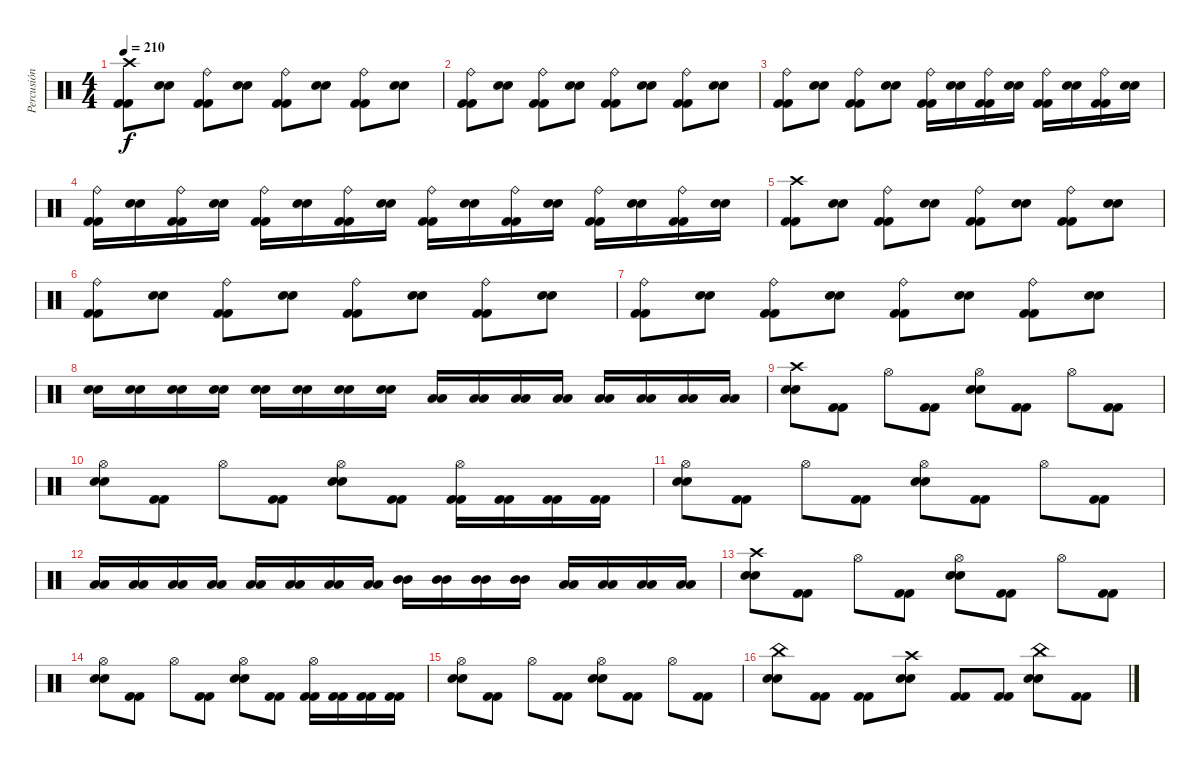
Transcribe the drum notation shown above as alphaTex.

\track ("Percusión" "Percusión") {instrument percussion}
\staff {score}
\articulation defaults
\ts (4 4)
\tempo 210
\clef neutral
\ks c
("Kick (hit) 2" "Kick (hit) 2" "Crash high (hit)").8{dy f} ("Electric Snare (hit)" "Electric Snare (hit)").8 ("Kick (hit) 2" "Kick (hit) 2" "Ride (bell)").8 ("Electric Snare (hit)" "Electric Snare (hit)").8 ("Kick (hit) 2" "Kick (hit) 2" "Ride (bell)").8 ("Electric Snare (hit)" "Electric Snare (hit)").8 ("Kick (hit) 2" "Kick (hit) 2" "Ride (bell)").8 ("Electric Snare (hit)" "Electric Snare (hit)").8 |
("Kick (hit) 2" "Kick (hit) 2" "Ride (bell)").8 ("Electric Snare (hit)" "Electric Snare (hit)").8 ("Kick (hit) 2" "Kick (hit) 2" "Ride (bell)").8 ("Electric Snare (hit)" "Electric Snare (hit)").8 ("Kick (hit) 2" "Kick (hit) 2" "Ride (bell)").8 ("Electric Snare (hit)" "Electric Snare (hit)").8 ("Kick (hit) 2" "Kick (hit) 2" "Ride (bell)").8 ("Electric Snare (hit)" "Electric Snare (hit)").8 |
("Kick (hit) 2" "Kick (hit) 2" "Ride (bell)").8 ("Electric Snare (hit)" "Electric Snare (hit)").8 ("Kick (hit) 2" "Kick (hit) 2" "Ride (bell)").8 ("Electric Snare (hit)" "Electric Snare (hit)").8 ("Kick (hit) 2" "Kick (hit) 2" "Ride (bell)").16 ("Electric Snare (hit)" "Electric Snare (hit)").16 ("Kick (hit) 2" "Kick (hit) 2" "Ride (bell)").16 ("Electric Snare (hit)" "Electric Snare (hit)").16 ("Kick (hit) 2" "Kick (hit) 2" "Ride (bell)").16 ("Electric Snare (hit)" "Electric Snare (hit)").16 ("Kick (hit) 2" "Kick (hit) 2" "Ride (bell)").16 ("Electric Snare (hit)" "Electric Snare (hit)").16 |
("Kick (hit) 2" "Kick (hit) 2" "Ride (bell)").16 ("Electric Snare (hit)" "Electric Snare (hit)").16 ("Kick (hit) 2" "Kick (hit) 2" "Ride (bell)").16 ("Electric Snare (hit)" "Electric Snare (hit)").16 ("Kick (hit) 2" "Kick (hit) 2" "Ride (bell)").16 ("Electric Snare (hit)" "Electric Snare (hit)").16 ("Kick (hit) 2" "Kick (hit) 2" "Ride (bell)").16 ("Electric Snare (hit)" "Electric Snare (hit)").16 ("Kick (hit) 2" "Kick (hit) 2" "Ride (bell)").16 ("Electric Snare (hit)" "Electric Snare (hit)").16 ("Kick (hit) 2" "Kick (hit) 2" "Ride (bell)").16 ("Electric Snare (hit)" "Electric Snare (hit)").16 ("Kick (hit) 2" "Kick (hit) 2" "Ride (bell)").16 ("Electric Snare (hit)" "Electric Snare (hit)").16 ("Kick (hit) 2" "Kick (hit) 2" "Ride (bell)").16 ("Electric Snare (hit)" "Electric Snare (hit)").16 |
("Kick (hit) 2" "Kick (hit) 2" "Crash high (hit)").8 ("Electric Snare (hit)" "Electric Snare (hit)").8 ("Kick (hit) 2" "Kick (hit) 2" "Ride (bell)").8 ("Electric Snare (hit)" "Electric Snare (hit)").8 ("Kick (hit) 2" "Kick (hit) 2" "Ride (bell)").8 ("Electric Snare (hit)" "Electric Snare (hit)").8 ("Kick (hit) 2" "Kick (hit) 2" "Ride (bell)").8 ("Electric Snare (hit)" "Electric Snare (hit)").8 |
("Kick (hit) 2" "Kick (hit) 2" "Ride (bell)").8 ("Electric Snare (hit)" "Electric Snare (hit)").8 ("Kick (hit) 2" "Kick (hit) 2" "Ride (bell)").8 ("Electric Snare (hit)" "Electric Snare (hit)").8 ("Kick (hit) 2" "Kick (hit) 2" "Ride (bell)").8 ("Electric Snare (hit)" "Electric Snare (hit)").8 ("Kick (hit) 2" "Kick (hit) 2" "Ride (bell)").8 ("Electric Snare (hit)" "Electric Snare (hit)").8 |
("Kick (hit) 2" "Kick (hit) 2" "Ride (bell)").8 ("Electric Snare (hit)" "Electric Snare (hit)").8 ("Kick (hit) 2" "Kick (hit) 2" "Ride (bell)").8 ("Electric Snare (hit)" "Electric Snare (hit)").8 ("Kick (hit) 2" "Kick (hit) 2" "Ride (bell)").8 ("Electric Snare (hit)" "Electric Snare (hit)").8 ("Kick (hit) 2" "Kick (hit) 2" "Ride (bell)").8 ("Electric Snare (hit)" "Electric Snare (hit)").8 |
("Electric Snare (hit)" "Electric Snare (hit)").16 ("Electric Snare (hit)" "Electric Snare (hit)").16 ("Electric Snare (hit)" "Electric Snare (hit)").16 ("Electric Snare (hit)" "Electric Snare (hit)").16 ("Electric Snare (hit)" "Electric Snare (hit)").16 ("Electric Snare (hit)" "Electric Snare (hit)").16 ("Electric Snare (hit)" "Electric Snare (hit)").16 ("Electric Snare (hit)" "Electric Snare (hit)").16 ("Low Tom (hit)" "Low Tom (hit)").16 ("Low Tom (hit)" "Low Tom (hit)").16 ("Low Tom (hit)" "Low Tom (hit)").16 ("Low Tom (hit)" "Low Tom (hit)").16 ("Low Tom (hit)" "Low Tom (hit)").16 ("Low Tom (hit)" "Low Tom (hit)").16 ("Low Tom (hit)" "Low Tom (hit)").16 ("Low Tom (hit)" "Low Tom (hit)").16 |
("Electric Snare (hit)" "Electric Snare (hit)" "Crash high (hit)").8 ("Kick (hit) 2" "Kick (hit) 2").8 "Hi-Hat (open)".8 ("Kick (hit) 2" "Kick (hit) 2").8 ("Electric Snare (hit)" "Electric Snare (hit)" "Hi-Hat (open)").8 ("Kick (hit) 2" "Kick (hit) 2").8 "Hi-Hat (open)".8 ("Kick (hit) 2" "Kick (hit) 2").8 |
("Electric Snare (hit)" "Electric Snare (hit)" "Hi-Hat (open)").8 ("Kick (hit) 2" "Kick (hit) 2").8 "Hi-Hat (open)".8 ("Kick (hit) 2" "Kick (hit) 2").8 ("Electric Snare (hit)" "Electric Snare (hit)" "Hi-Hat (open)").8 ("Kick (hit) 2" "Kick (hit) 2").8 ("Kick (hit) 2" "Kick (hit) 2" "Hi-Hat (open)").16 ("Kick (hit) 2" "Kick (hit) 2").16 ("Kick (hit) 2" "Kick (hit) 2").16 ("Kick (hit) 2" "Kick (hit) 2").16 |
("Electric Snare (hit)" "Electric Snare (hit)" "Hi-Hat (open)").8 ("Kick (hit) 2" "Kick (hit) 2").8 "Hi-Hat (open)".8 ("Kick (hit) 2" "Kick (hit) 2").8 ("Electric Snare (hit)" "Electric Snare (hit)" "Hi-Hat (open)").8 ("Kick (hit) 2" "Kick (hit) 2").8 "Hi-Hat (open)".8 ("Kick (hit) 2" "Kick (hit) 2").8 |
("Low Tom (hit)" "Low Tom (hit)").16 ("Low Tom (hit)" "Low Tom (hit)").16 ("Low Tom (hit)" "Low Tom (hit)").16 ("Low Tom (hit)" "Low Tom (hit)").16 ("Low Tom (hit)" "Low Tom (hit)").16 ("Low Tom (hit)" "Low Tom (hit)").16 ("Low Tom (hit)" "Low Tom (hit)").16 ("Low Tom (hit)" "Low Tom (hit)").16 ("Mid Tom (hit)" "Mid Tom (hit)").16 ("Mid Tom (hit)" "Mid Tom (hit)").16 ("Mid Tom (hit)" "Mid Tom (hit)").16 ("Mid Tom (hit)" "Mid Tom (hit)").16 ("Low Floor Tom (hit)" "Low Floor Tom (hit)").16 ("Low Floor Tom (hit)" "Low Floor Tom (hit)").16 ("Low Floor Tom (hit)" "Low Floor Tom (hit)").16 ("Low Floor Tom (hit)" "Low Floor Tom (hit)").16 |
("Electric Snare (hit)" "Electric Snare (hit)" "Crash high (hit)").8 ("Kick (hit) 2" "Kick (hit) 2").8 "Hi-Hat (open)".8 ("Kick (hit) 2" "Kick (hit) 2").8 ("Electric Snare (hit)" "Electric Snare (hit)" "Hi-Hat (open)").8 ("Kick (hit) 2" "Kick (hit) 2").8 "Hi-Hat (open)".8 ("Kick (hit) 2" "Kick (hit) 2").8 |
("Electric Snare (hit)" "Electric Snare (hit)" "Hi-Hat (open)").8 ("Kick (hit) 2" "Kick (hit) 2").8 "Hi-Hat (open)".8 ("Kick (hit) 2" "Kick (hit) 2").8 ("Electric Snare (hit)" "Electric Snare (hit)" "Hi-Hat (open)").8 ("Kick (hit) 2" "Kick (hit) 2").8 ("Kick (hit) 2" "Kick (hit) 2" "Hi-Hat (open)").16 ("Kick (hit) 2" "Kick (hit) 2").16 ("Kick (hit) 2" "Kick (hit) 2").16 ("Kick (hit) 2" "Kick (hit) 2").16 |
("Electric Snare (hit)" "Electric Snare (hit)" "Hi-Hat (open)").8 ("Kick (hit) 2" "Kick (hit) 2").8 "Hi-Hat (open)".8 ("Kick (hit) 2" "Kick (hit) 2").8 ("Electric Snare (hit)" "Electric Snare (hit)" "Hi-Hat (open)").8 ("Kick (hit) 2" "Kick (hit) 2").8 "Hi-Hat (open)".8 ("Kick (hit) 2" "Kick (hit) 2").8 |
("Electric Snare (hit)" "Electric Snare (hit)" "China (hit)").8 ("Kick (hit) 2" "Kick (hit) 2").8 ("Kick (hit) 2" "Kick (hit) 2").8 ("Electric Snare (hit)" "Electric Snare (hit)" "Crash high (hit)").8 ("Kick (hit) 2" "Kick (hit) 2").8 ("Kick (hit) 2" "Kick (hit) 2").8 ("Electric Snare (hit)" "Electric Snare (hit)" "China (hit)").8 ("Kick (hit) 2" "Kick (hit) 2").8
